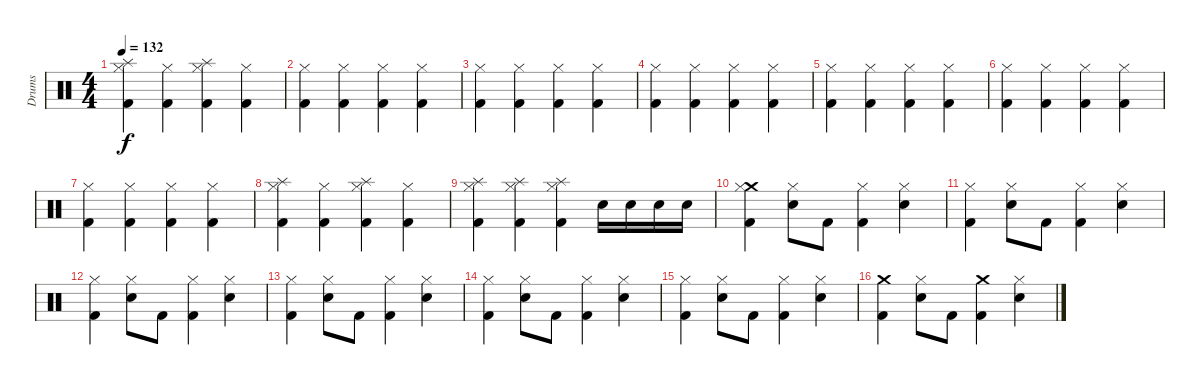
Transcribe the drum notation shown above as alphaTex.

\track ("Drums" "Drums") {instrument percussion}
\staff {score}
\articulation defaults
\ts (4 4)
\tempo 132
\clef neutral
\ks c
("Splash (hit)" "Kick (hit) 2" "Hi-Hat (closed)").4{dy f} ("Kick (hit) 2" "Hi-Hat (closed)").4 ("Splash (hit)" "Kick (hit) 2" "Hi-Hat (closed)").4 ("Kick (hit) 2" "Hi-Hat (closed)").4 |
("Hi-Hat (closed)" "Kick (hit) 2").4 ("Hi-Hat (closed)" "Kick (hit) 2").4 ("Hi-Hat (closed)" "Kick (hit) 2").4 ("Hi-Hat (closed)" "Kick (hit) 2").4 |
("Kick (hit) 2" "Hi-Hat (closed)").4 ("Kick (hit) 2" "Hi-Hat (closed)").4 ("Kick (hit) 2" "Hi-Hat (closed)").4 ("Kick (hit) 2" "Hi-Hat (closed)").4 |
("Hi-Hat (closed)" "Kick (hit) 2").4 ("Hi-Hat (closed)" "Kick (hit) 2").4 ("Hi-Hat (closed)" "Kick (hit) 2").4 ("Hi-Hat (closed)" "Kick (hit) 2").4 |
("Kick (hit) 2" "Hi-Hat (closed)").4 ("Kick (hit) 2" "Hi-Hat (closed)").4 ("Kick (hit) 2" "Hi-Hat (closed)").4 ("Kick (hit) 2" "Hi-Hat (closed)").4 |
("Kick (hit) 2" "Hi-Hat (closed)").4 ("Kick (hit) 2" "Hi-Hat (closed)").4 ("Kick (hit) 2" "Hi-Hat (closed)").4 ("Kick (hit) 2" "Hi-Hat (closed)").4 |
("Hi-Hat (closed)" "Kick (hit) 2").4 ("Hi-Hat (closed)" "Kick (hit) 2").4 ("Hi-Hat (closed)" "Kick (hit) 2").4 ("Hi-Hat (closed)" "Kick (hit) 2").4 |
("Splash (hit)" "Kick (hit) 2" "Hi-Hat (closed)").4 ("Kick (hit) 2" "Hi-Hat (closed)").4 ("Splash (hit)" "Kick (hit) 2" "Hi-Hat (closed)").4 ("Kick (hit) 2" "Hi-Hat (closed)").4 |
("Splash (hit)" "Kick (hit) 2" "Hi-Hat (closed)").4 ("Splash (hit)" "Kick (hit) 2" "Hi-Hat (closed)").4 ("Splash (hit)" "Kick (hit) 2" "Hi-Hat (closed)").4 "Snare (hit) 2".16 "Snare (hit) 2".16 "Snare (hit) 2".16 "Snare (hit) 2".16 |
("Crash medium (hit)" "Hi-Hat (closed)" "Kick (hit) 2").4 ("Hi-Hat (closed)" "Snare (hit) 2").8 "Kick (hit) 2".8 ("Hi-Hat (closed)" "Kick (hit) 2").4 ("Hi-Hat (closed)" "Snare (hit) 2").4 |
("Hi-Hat (closed)" "Kick (hit) 2").4 ("Hi-Hat (closed)" "Snare (hit) 2").8 "Kick (hit) 2".8 ("Hi-Hat (closed)" "Kick (hit) 2").4 ("Hi-Hat (closed)" "Snare (hit) 2").4 |
("Hi-Hat (closed)" "Kick (hit) 2").4 ("Hi-Hat (closed)" "Snare (hit) 2").8 "Kick (hit) 2".8 ("Hi-Hat (closed)" "Kick (hit) 2").4 ("Hi-Hat (closed)" "Snare (hit) 2").4 |
("Hi-Hat (closed)" "Kick (hit) 2").4 ("Hi-Hat (closed)" "Snare (hit) 2").8 "Kick (hit) 2".8 ("Hi-Hat (closed)" "Kick (hit) 2").4 ("Hi-Hat (closed)" "Snare (hit) 2").4 |
("Hi-Hat (closed)" "Kick (hit) 2").4 ("Hi-Hat (closed)" "Snare (hit) 2").8 "Kick (hit) 2".8 ("Hi-Hat (closed)" "Kick (hit) 2").4 ("Hi-Hat (closed)" "Snare (hit) 2").4 |
("Hi-Hat (closed)" "Kick (hit) 2").4 ("Hi-Hat (closed)" "Snare (hit) 2").8 "Kick (hit) 2".8 ("Hi-Hat (closed)" "Kick (hit) 2").4 ("Hi-Hat (closed)" "Snare (hit) 2").4 |
("Crash medium (hit)" "Kick (hit) 2").4 ("Hi-Hat (closed)" "Snare (hit) 2").8 "Kick (hit) 2".8 ("Crash medium (hit)" "Kick (hit) 2").4 ("Hi-Hat (closed)" "Snare (hit) 2").4
